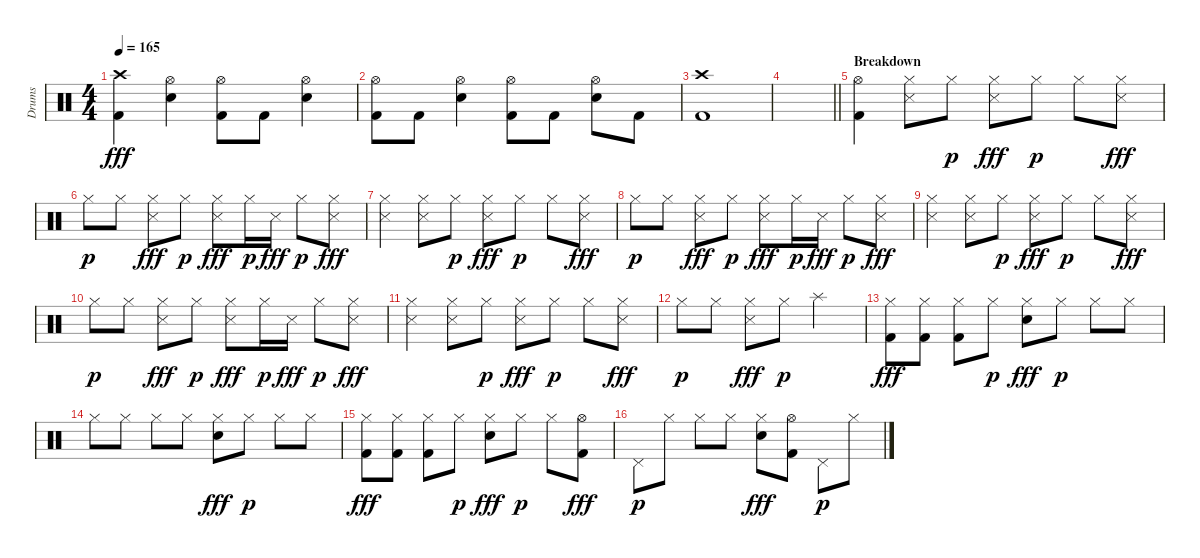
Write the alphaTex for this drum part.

\track ("Drums" "Drums") {instrument percussion}
\staff {score}
\articulation defaults
\ts (4 4)
\tempo 165
\clef neutral
\ks c
("Crash high (hit)" "Kick (hit) 2").4{dy fff} ("Hi-Hat (open)" "Snare (hit) 2").4 ("Hi-Hat (open)" "Kick (hit) 2").8 "Kick (hit) 2".8 ("Hi-Hat (open)" "Snare (hit) 2").4 |
("Hi-Hat (open)" "Kick (hit) 2").8 "Kick (hit) 2".8 ("Hi-Hat (open)" "Snare (hit) 2").4 ("Hi-Hat (open)" "Kick (hit) 2").8 "Kick (hit) 2".8 ("Hi-Hat (open)" "Snare (hit) 2").8 "Kick (hit) 2".8 |
("Crash high (hit)" "Kick (hit) 2").1 |
\barLineRight lightlight
|
\section ("" "Breakdown")
("Hi-Hat (open)" "Kick (hit) 2").4 ("Hi-Hat (closed)" "Snare (side stick) 3").8 "Hi-Hat (closed)".8{dy p} ("Hi-Hat (closed)" "Snare (side stick) 3").8{dy fff} "Hi-Hat (closed)".8{dy p} "Hi-Hat (closed)".8 ("Hi-Hat (closed)" "Snare (side stick) 3").8{dy fff} |
"Hi-Hat (closed)".8{dy p} "Hi-Hat (closed)".8 ("Hi-Hat (closed)" "Snare (side stick) 3").8{dy fff} "Hi-Hat (closed)".8{dy p} ("Hi-Hat (closed)" "Snare (side stick) 3").8{dy fff} "Hi-Hat (closed)".16{dy p} "Snare (side stick) 3".16{dy fff} "Hi-Hat (closed)".8{dy p} ("Hi-Hat (closed)" "Snare (side stick) 3").8{dy fff} |
("Hi-Hat (closed)" "Snare (side stick) 3").4 ("Hi-Hat (closed)" "Snare (side stick) 3").8 "Hi-Hat (closed)".8{dy p} ("Hi-Hat (closed)" "Snare (side stick) 3").8{dy fff} "Hi-Hat (closed)".8{dy p} "Hi-Hat (closed)".8 ("Hi-Hat (closed)" "Snare (side stick) 3").8{dy fff} |
"Hi-Hat (closed)".8{dy p} "Hi-Hat (closed)".8 ("Hi-Hat (closed)" "Snare (side stick) 3").8{dy fff} "Hi-Hat (closed)".8{dy p} ("Hi-Hat (closed)" "Snare (side stick) 3").8{dy fff} "Hi-Hat (closed)".16{dy p} "Snare (side stick) 3".16{dy fff} "Hi-Hat (closed)".8{dy p} ("Hi-Hat (closed)" "Snare (side stick) 3").8{dy fff} |
("Hi-Hat (closed)" "Snare (side stick) 3").4 ("Hi-Hat (closed)" "Snare (side stick) 3").8 "Hi-Hat (closed)".8{dy p} ("Hi-Hat (closed)" "Snare (side stick) 3").8{dy fff} "Hi-Hat (closed)".8{dy p} "Hi-Hat (closed)".8 ("Hi-Hat (closed)" "Snare (side stick) 3").8{dy fff} |
"Hi-Hat (closed)".8{dy p} "Hi-Hat (closed)".8 ("Hi-Hat (closed)" "Snare (side stick) 3").8{dy fff} "Hi-Hat (closed)".8{dy p} ("Hi-Hat (closed)" "Snare (side stick) 3").8{dy fff} "Hi-Hat (closed)".16{dy p} "Snare (side stick) 3".16{dy fff} "Hi-Hat (closed)".8{dy p} ("Hi-Hat (closed)" "Snare (side stick) 3").8{dy fff} |
("Hi-Hat (closed)" "Snare (side stick) 3").4 ("Hi-Hat (closed)" "Snare (side stick) 3").8 "Hi-Hat (closed)".8{dy p} ("Hi-Hat (closed)" "Snare (side stick) 3").8{dy fff} "Hi-Hat (closed)".8{dy p} "Hi-Hat (closed)".8 ("Hi-Hat (closed)" "Snare (side stick) 3").8{dy fff} |
"Hi-Hat (closed)".8{dy p} "Hi-Hat (closed)".8 ("Hi-Hat (closed)" "Snare (side stick) 3").8{dy fff} "Hi-Hat (closed)".8{dy p} "Splash (hit)".2 |
("Hi-Hat (closed)" "Kick (hit) 2").8{dy fff} ("Hi-Hat (closed)" "Kick (hit) 2").8 ("Hi-Hat (closed)" "Kick (hit) 2").8 "Hi-Hat (closed)".8{dy p} ("Hi-Hat (closed)" "Electric Snare (hit)").8{dy fff} "Hi-Hat (closed)".8{dy p} "Hi-Hat (closed)".8 "Hi-Hat (closed)".8 |
"Hi-Hat (closed)".8 "Hi-Hat (closed)".8 "Hi-Hat (closed)".8 "Hi-Hat (closed)".8 ("Hi-Hat (closed)" "Electric Snare (hit)").8{dy fff} "Hi-Hat (closed)".8{dy p} "Hi-Hat (closed)".8 "Hi-Hat (closed)".8 |
("Hi-Hat (closed)" "Kick (hit) 2").8{dy fff} ("Hi-Hat (closed)" "Kick (hit) 2").8 ("Hi-Hat (closed)" "Kick (hit) 2").8 "Hi-Hat (closed)".8{dy p} ("Hi-Hat (closed)" "Electric Snare (hit)").8{dy fff} "Hi-Hat (closed)".8{dy p} "Hi-Hat (closed)".8 ("Hi-Hat (open)" "Kick (hit) 2").8{dy fff} |
"Pedal Hi-Hat (hit)".8{dy p} "Hi-Hat (closed)".8 "Hi-Hat (closed)".8 "Hi-Hat (closed)".8 ("Hi-Hat (closed)" "Electric Snare (hit)").8{dy fff} ("Hi-Hat (open)" "Kick (hit) 2").8 "Pedal Hi-Hat (hit)".8{dy p} "Hi-Hat (closed)".8
